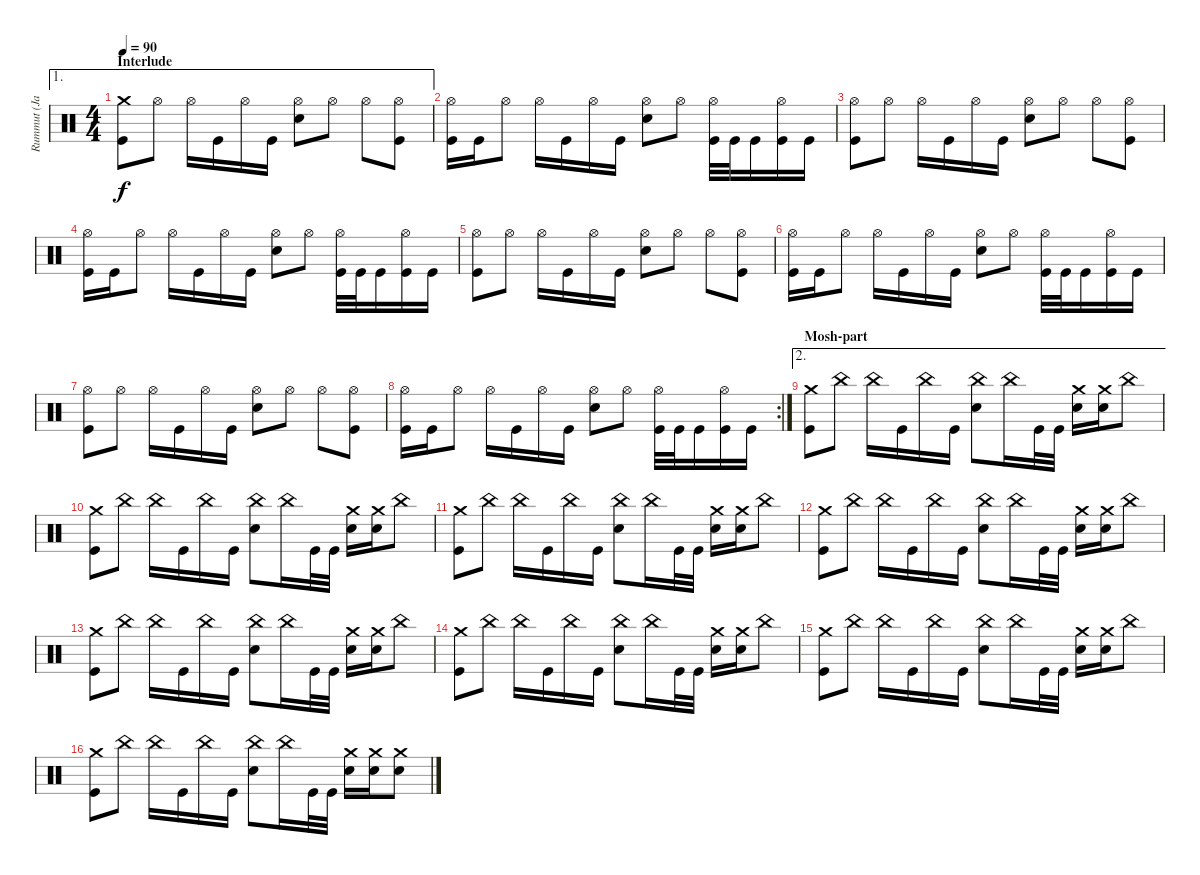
\track ("Rummut (Janne)" "Rummut (Ja") {instrument percussion}
\staff {score}
\articulation defaults
\ae 1
\ts (4 4)
\section ("" "Interlude")
\tempo 90
\clef neutral
\ks c
("Crash medium (hit)" "Kick (hit)").8{dy f} "Hi-Hat (open)".8 "Hi-Hat (open)".16 "Kick (hit)".16 "Hi-Hat (open)".16 "Kick (hit)".16 ("Hi-Hat (open)" "Snare (hit) 2").8 "Hi-Hat (open)".8 "Hi-Hat (open)".8 ("Hi-Hat (open)" "Kick (hit)").8 |
("Hi-Hat (open)" "Kick (hit)").16 "Kick (hit)".16 "Hi-Hat (open)".8 "Hi-Hat (open)".16 "Kick (hit)".16 "Hi-Hat (open)".16 "Kick (hit)".16 ("Hi-Hat (open)" "Snare (hit) 2").8 "Hi-Hat (open)".8 ("Hi-Hat (open)" "Kick (hit)").32 "Kick (hit)".32 "Kick (hit)".16 ("Hi-Hat (open)" "Kick (hit)").16 "Kick (hit)".16 |
("Hi-Hat (open)" "Kick (hit)").8 "Hi-Hat (open)".8 "Hi-Hat (open)".16 "Kick (hit)".16 "Hi-Hat (open)".16 "Kick (hit)".16 ("Hi-Hat (open)" "Snare (hit) 2").8 "Hi-Hat (open)".8 "Hi-Hat (open)".8 ("Hi-Hat (open)" "Kick (hit)").8 |
("Hi-Hat (open)" "Kick (hit)").16 "Kick (hit)".16 "Hi-Hat (open)".8 "Hi-Hat (open)".16 "Kick (hit)".16 "Hi-Hat (open)".16 "Kick (hit)".16 ("Hi-Hat (open)" "Snare (hit) 2").8 "Hi-Hat (open)".8 ("Hi-Hat (open)" "Kick (hit)").32 "Kick (hit)".32 "Kick (hit)".16 ("Hi-Hat (open)" "Kick (hit)").16 "Kick (hit)".16 |
("Hi-Hat (open)" "Kick (hit)").8 "Hi-Hat (open)".8 "Hi-Hat (open)".16 "Kick (hit)".16 "Hi-Hat (open)".16 "Kick (hit)".16 ("Hi-Hat (open)" "Snare (hit) 2").8 "Hi-Hat (open)".8 "Hi-Hat (open)".8 ("Hi-Hat (open)" "Kick (hit)").8 |
("Hi-Hat (open)" "Kick (hit)").16 "Kick (hit)".16 "Hi-Hat (open)".8 "Hi-Hat (open)".16 "Kick (hit)".16 "Hi-Hat (open)".16 "Kick (hit)".16 ("Hi-Hat (open)" "Snare (hit) 2").8 "Hi-Hat (open)".8 ("Hi-Hat (open)" "Kick (hit)").32 "Kick (hit)".32 "Kick (hit)".16 ("Hi-Hat (open)" "Kick (hit)").16 "Kick (hit)".16 |
("Hi-Hat (open)" "Kick (hit)").8 "Hi-Hat (open)".8 "Hi-Hat (open)".16 "Kick (hit)".16 "Hi-Hat (open)".16 "Kick (hit)".16 ("Hi-Hat (open)" "Snare (hit) 2").8 "Hi-Hat (open)".8 "Hi-Hat (open)".8 ("Hi-Hat (open)" "Kick (hit)").8 |
\rc 2
("Hi-Hat (open)" "Kick (hit)").16 "Kick (hit)".16 "Hi-Hat (open)".8 "Hi-Hat (open)".16 "Kick (hit)".16 "Hi-Hat (open)".16 "Kick (hit)".16 ("Hi-Hat (open)" "Snare (hit) 2").8 "Hi-Hat (open)".8 ("Hi-Hat (open)" "Kick (hit)").32 "Kick (hit)".32 "Kick (hit)".16 ("Hi-Hat (open)" "Kick (hit)").16 "Kick (hit)".16 |
\ae 2
\section ("" "Mosh-part")
("Crash medium (hit)" "Kick (hit)").8 "China (hit)".8 "China (hit)".16 "Kick (hit)".16 "China (hit)".16 "Kick (hit)".16 ("China (hit)" "Snare (hit) 2").8 "China (hit)".16 "Kick (hit)".32 "Kick (hit)".32 ("Crash medium (hit)" "Snare (hit) 2").16 ("Crash medium (hit)" "Snare (hit) 2").16 "China (hit)".8 |
("Crash medium (hit)" "Kick (hit)").8 "China (hit)".8 "China (hit)".16 "Kick (hit)".16 "China (hit)".16 "Kick (hit)".16 ("China (hit)" "Snare (hit) 2").8 "China (hit)".16 "Kick (hit)".32 "Kick (hit)".32 ("Crash medium (hit)" "Snare (hit) 2").16 ("Crash medium (hit)" "Snare (hit) 2").16 "China (hit)".8 |
("Crash medium (hit)" "Kick (hit)").8 "China (hit)".8 "China (hit)".16 "Kick (hit)".16 "China (hit)".16 "Kick (hit)".16 ("China (hit)" "Snare (hit) 2").8 "China (hit)".16 "Kick (hit)".32 "Kick (hit)".32 ("Crash medium (hit)" "Snare (hit) 2").16 ("Crash medium (hit)" "Snare (hit) 2").16 "China (hit)".8 |
("Crash medium (hit)" "Kick (hit)").8 "China (hit)".8 "China (hit)".16 "Kick (hit)".16 "China (hit)".16 "Kick (hit)".16 ("China (hit)" "Snare (hit) 2").8 "China (hit)".16 "Kick (hit)".32 "Kick (hit)".32 ("Crash medium (hit)" "Snare (hit) 2").16 ("Crash medium (hit)" "Snare (hit) 2").16 "China (hit)".8 |
("Crash medium (hit)" "Kick (hit)").8 "China (hit)".8 "China (hit)".16 "Kick (hit)".16 "China (hit)".16 "Kick (hit)".16 ("China (hit)" "Snare (hit) 2").8 "China (hit)".16 "Kick (hit)".32 "Kick (hit)".32 ("Crash medium (hit)" "Snare (hit) 2").16 ("Crash medium (hit)" "Snare (hit) 2").16 "China (hit)".8 |
("Crash medium (hit)" "Kick (hit)").8 "China (hit)".8 "China (hit)".16 "Kick (hit)".16 "China (hit)".16 "Kick (hit)".16 ("China (hit)" "Snare (hit) 2").8 "China (hit)".16 "Kick (hit)".32 "Kick (hit)".32 ("Crash medium (hit)" "Snare (hit) 2").16 ("Crash medium (hit)" "Snare (hit) 2").16 "China (hit)".8 |
("Crash medium (hit)" "Kick (hit)").8 "China (hit)".8 "China (hit)".16 "Kick (hit)".16 "China (hit)".16 "Kick (hit)".16 ("China (hit)" "Snare (hit) 2").8 "China (hit)".16 "Kick (hit)".32 "Kick (hit)".32 ("Crash medium (hit)" "Snare (hit) 2").16 ("Crash medium (hit)" "Snare (hit) 2").16 "China (hit)".8 |
("Crash medium (hit)" "Kick (hit)").8 "China (hit)".8 "China (hit)".16 "Kick (hit)".16 "China (hit)".16 "Kick (hit)".16 ("China (hit)" "Snare (hit) 2").8 "China (hit)".16 "Kick (hit)".32 "Kick (hit)".32 ("Crash medium (hit)" "Snare (hit) 2").16 ("Crash medium (hit)" "Snare (hit) 2").16 ("Crash medium (hit)" "Snare (hit) 2").8
